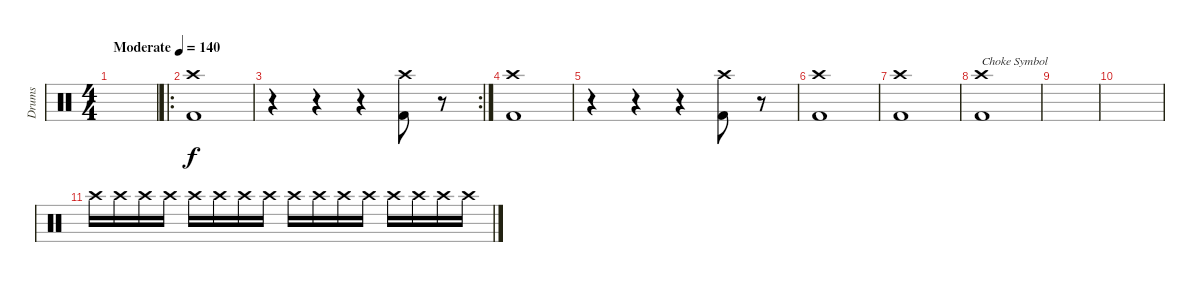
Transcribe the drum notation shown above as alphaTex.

\track ("Drums" "Drums") {instrument percussion}
\staff {score}
\articulation defaults
\ts (4 4)
\tempo (140 "Moderate")
\clef neutral
\ks c
|
\ro
("Crash high (hit)" "Kick (hit) 2").1 |
\rc 2
r.4 r.4 r.4 ("Crash high (hit)" "Kick (hit) 2").8 r.8 |
("Crash high (hit)" "Kick (hit) 2").1 |
r.4 r.4 r.4 ("Crash high (hit)" "Kick (hit) 2").8 r.8 |
("Crash high (hit)" "Kick (hit) 2").1 |
("Crash high (hit)" "Kick (hit) 2").1 |
("Crash high (hit)" "Kick (hit) 2").1{txt "Choke Symbol"} |
|
|
"Crash high (hit)".16{volume 2} "Crash high (hit)".16 "Crash high (hit)".16{volume 5} "Crash high (hit)".16 "Crash high (hit)".16 "Crash high (hit)".16{volume 8} "Crash high (hit)".16 "Crash high (hit)".16 "Crash high (hit)".16{volume 10} "Crash high (hit)".16 "Crash high (hit)".16 "Crash high (hit)".16{volume 13} "Crash high (hit)".16 "Crash high (hit)".16 "Crash high (hit)".16 "Crash high (hit)".16
